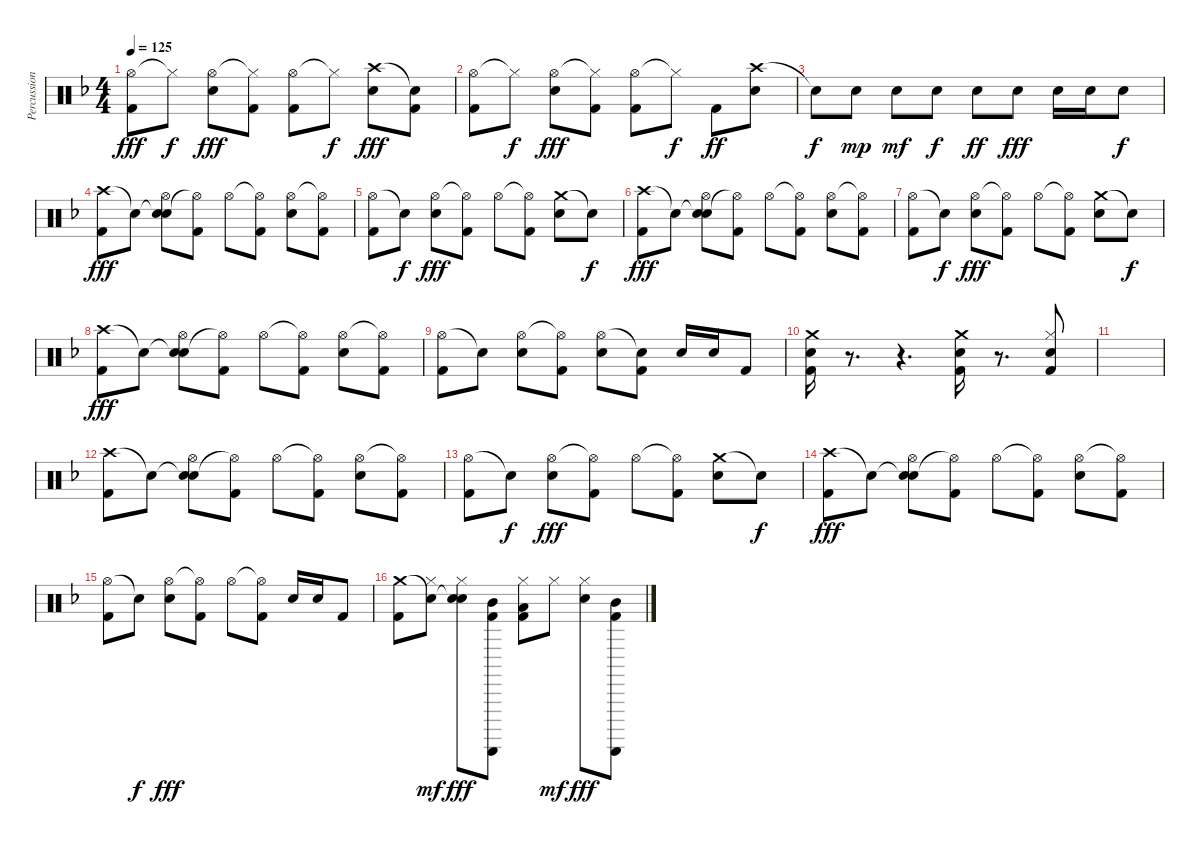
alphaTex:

\track ("Percussion" "Percussion") {instrument percussion}
\staff {score}
\articulation defaults
\ts (4 4)
\tempo 125
\clef neutral
\ks dminor
("Hi-Hat (open)" "Kick (hit) 2").8{dy fff} "Hi-Hat (closed)"{t}.8{dy f} ("Hi-Hat (open)" "Electric Snare (hit)").8{dy fff} ("Hi-Hat (closed)"{t} "Kick (hit) 2").8 ("Hi-Hat (open)" "Kick (hit) 2").8 "Hi-Hat (closed)"{t}.8{dy f} ("Crash high (hit)" "Electric Snare (hit)").8{dy fff} ("Snare (hit)"{t} "Kick (hit) 2").8 |
("Hi-Hat (open)" "Kick (hit) 2").8 "Hi-Hat (closed)"{t}.8{dy f} ("Hi-Hat (open)" "Electric Snare (hit)").8{dy fff} ("Hi-Hat (closed)"{t} "Kick (hit) 2").8 ("Hi-Hat (open)" "Kick (hit) 2").8 "Hi-Hat (closed)"{t}.8{dy f} "Kick (hit) 2".8{dy ff} ("Crash high (hit)" "Electric Snare (hit)").8 |
"Snare (hit)"{t}.8{dy f} "Electric Snare (hit)".8{dy mp} "Electric Snare (hit)".8{dy mf} "Electric Snare (hit)".8{dy f} "Electric Snare (hit)".8{dy ff} "Electric Snare (hit)".8{dy fff} "Electric Snare (hit)".16 "Electric Snare (hit)".16 "Electric Snare (hit)".8{dy f} |
("Crash high (hit)" "Kick (hit) 2").8{dy fff} "Snare (hit)"{t}.8 ("Snare (hit)"{t} "Hi-Hat (open)" "Electric Snare (hit)").8 ("Hi-Hat (open)"{t} "Kick (hit) 2").8 "Hi-Hat (open)".8 ("Hi-Hat (open)"{t} "Kick (hit) 2").8 ("Hi-Hat (open)" "Electric Snare (hit)").8 ("Hi-Hat (open)"{t} "Kick (hit) 2").8 |
("Hi-Hat (open)" "Kick (hit) 2").8 "Snare (hit)"{t}.8{dy f} ("Hi-Hat (open)" "Electric Snare (hit)").8{dy fff} ("Hi-Hat (open)"{t} "Kick (hit) 2").8 "Hi-Hat (open)".8 ("Hi-Hat (open)"{t} "Kick (hit) 2").8 ("Crash medium (hit)" "Electric Snare (hit)").8 "Snare (hit)"{t}.8{dy f} |
("Crash high (hit)" "Kick (hit) 2").8{dy fff} "Snare (hit)"{t}.8 ("Snare (hit)"{t} "Hi-Hat (open)" "Electric Snare (hit)").8 ("Hi-Hat (open)"{t} "Kick (hit) 2").8 "Hi-Hat (open)".8 ("Hi-Hat (open)"{t} "Kick (hit) 2").8 ("Hi-Hat (open)" "Electric Snare (hit)").8 ("Hi-Hat (open)"{t} "Kick (hit) 2").8 |
("Hi-Hat (open)" "Kick (hit) 2").8 "Snare (hit)"{t}.8{dy f} ("Hi-Hat (open)" "Electric Snare (hit)").8{dy fff} ("Hi-Hat (open)"{t} "Kick (hit) 2").8 "Hi-Hat (open)".8 ("Hi-Hat (open)"{t} "Kick (hit) 2").8 ("Crash medium (hit)" "Electric Snare (hit)").8 "Snare (hit)"{t}.8{dy f} |
("Crash high (hit)" "Kick (hit) 2").8{dy fff} "Snare (hit)"{t}.8 ("Snare (hit)"{t} "Hi-Hat (open)" "Electric Snare (hit)").8 ("Hi-Hat (open)"{t} "Kick (hit) 2").8 "Hi-Hat (open)".8 ("Hi-Hat (open)"{t} "Kick (hit) 2").8 ("Hi-Hat (open)" "Electric Snare (hit)").8 ("Hi-Hat (open)"{t} "Kick (hit) 2").8 |
("Hi-Hat (open)" "Kick (hit) 2").8 "Snare (hit)"{t}.8 ("Hi-Hat (open)" "Electric Snare (hit)").8 ("Hi-Hat (open)"{t} "Kick (hit) 2").8 ("Hi-Hat (open)" "Electric Snare (hit)").8 ("Snare (hit)"{t} "Kick (hit) 2").8 "Electric Snare (hit)".16 "Electric Snare (hit)".16 "Kick (hit) 2".8 |
("Crash medium (hit)" "Electric Snare (hit)" "Kick (hit) 2").16 r.8{d volume 0} r.4{d} ("Crash medium (hit)" "Electric Snare (hit)" "Kick (hit) 2").16{volume 16} r.8{d volume 0} ("Hi-Hat (closed)" "Electric Snare (hit)" "Kick (hit) 2").8{volume 16} |
|
("Crash high (hit)" "Kick (hit) 2").8 "Snare (hit)"{t}.8 ("Snare (hit)"{t} "Hi-Hat (open)" "Electric Snare (hit)").8 ("Hi-Hat (open)"{t} "Kick (hit) 2").8 "Hi-Hat (open)".8 ("Hi-Hat (open)"{t} "Kick (hit) 2").8 ("Hi-Hat (open)" "Electric Snare (hit)").8 ("Hi-Hat (open)"{t} "Kick (hit) 2").8 |
("Hi-Hat (open)" "Kick (hit) 2").8 "Snare (hit)"{t}.8{dy f} ("Hi-Hat (open)" "Electric Snare (hit)").8{dy fff} ("Hi-Hat (open)"{t} "Kick (hit) 2").8 "Hi-Hat (open)".8 ("Hi-Hat (open)"{t} "Kick (hit) 2").8 ("Crash medium (hit)" "Electric Snare (hit)").8 "Snare (hit)"{t}.8{dy f} |
("Crash high (hit)" "Kick (hit) 2").8{dy fff} "Snare (hit)"{t}.8 ("Snare (hit)"{t} "Hi-Hat (open)" "Electric Snare (hit)").8 ("Hi-Hat (open)"{t} "Kick (hit) 2").8 "Hi-Hat (open)".8 ("Hi-Hat (open)"{t} "Kick (hit) 2").8 ("Hi-Hat (open)" "Electric Snare (hit)").8 ("Hi-Hat (open)"{t} "Kick (hit) 2").8 |
("Hi-Hat (open)" "Kick (hit) 2").8 "Snare (hit)"{t}.8{dy f} ("Hi-Hat (open)" "Electric Snare (hit)").8{dy fff} ("Hi-Hat (open)"{t} "Kick (hit) 2").8 "Hi-Hat (open)".8 ("Hi-Hat (open)"{t} "Kick (hit) 2").8 "Electric Snare (hit)".16 "Electric Snare (hit)".16 "Kick (hit) 2".8 |
("Crash medium (hit)" "Kick (hit) 2").8 ("Snare (hit)"{t} "Hi-Hat (closed)").8{dy mf} ("Snare (hit)"{t} "Hi-Hat (closed)" "Electric Snare (hit)").8{dy fff} ("Guiro (scrap-return)" "Mid Tom (hit)" "Kick (hit) 2").8 ("Hi-Hat (closed)" "Low Floor Tom (hit)" "Kick (hit) 2").8 "Hi-Hat (closed)".8{dy mf} ("Hi-Hat (closed)" "Electric Snare (hit)").8{dy fff} ("Guiro (scrap-return)" "Mid Tom (hit)" "Kick (hit) 2").8
